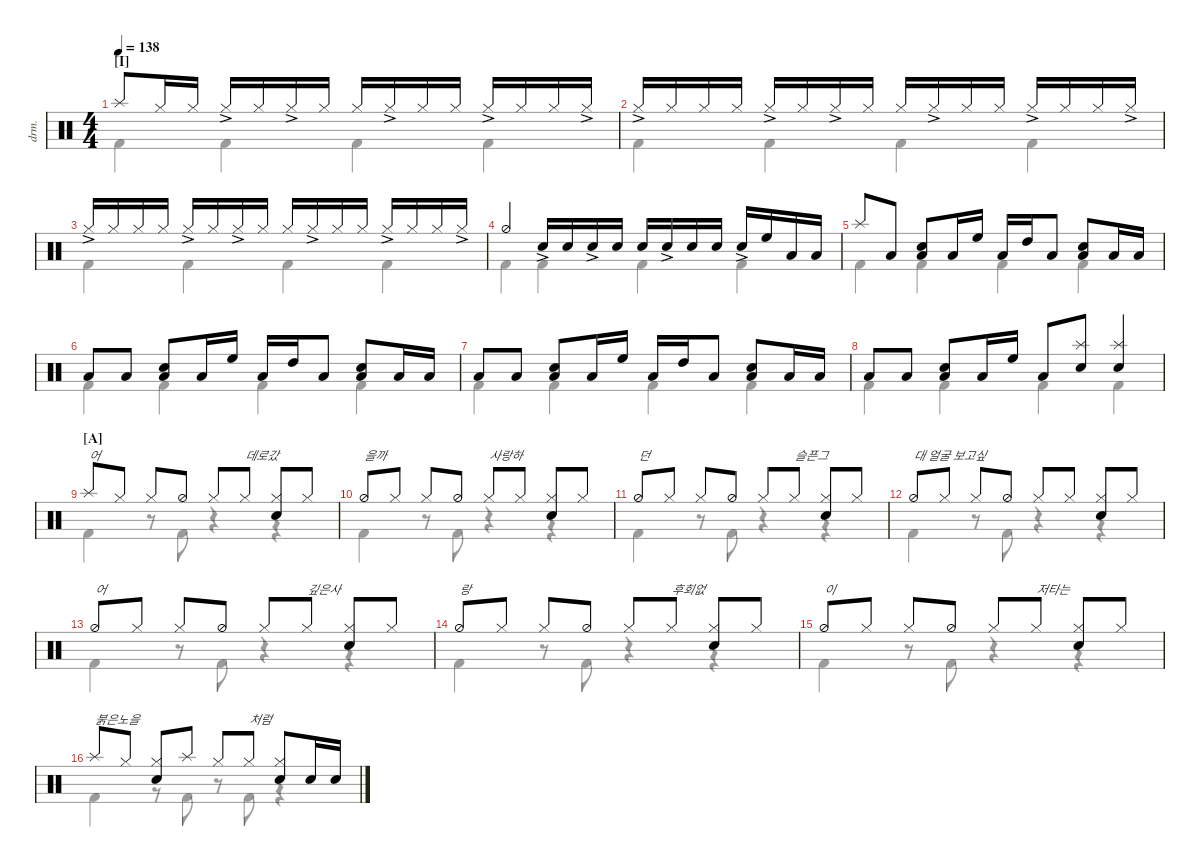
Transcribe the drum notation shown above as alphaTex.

\defaultSystemsLayout 4
\hideDynamics
\bracketExtendMode nobrackets
\track ("Drumkit" "drm.") {instrument percussion}
\staff {score}
\articulation defaults
\voice
\ts (4 4)
\section ("I" "")
\tempo 138
\clef neutral
\ks c "Splash (hit)".8{dy mf} "Hi-Hat (closed)".16 "Hi-Hat (closed)".16 "Hi-Hat (closed)"{ac}.16 "Hi-Hat (closed)".16 "Hi-Hat (closed)"{ac}.16 "Hi-Hat (closed)".16 "Hi-Hat (closed)".16 "Hi-Hat (closed)"{ac}.16 "Hi-Hat (closed)".16 "Hi-Hat (closed)".16 "Hi-Hat (closed)"{ac}.16 "Hi-Hat (closed)".16 "Hi-Hat (closed)".16 "Hi-Hat (closed)"{ac}.16
|
"Hi-Hat (closed)"{ac}.16 "Hi-Hat (closed)".16 "Hi-Hat (closed)".16 "Hi-Hat (closed)".16 "Hi-Hat (closed)"{ac}.16 "Hi-Hat (closed)".16 "Hi-Hat (closed)"{ac}.16 "Hi-Hat (closed)".16 "Hi-Hat (closed)".16 "Hi-Hat (closed)"{ac}.16 "Hi-Hat (closed)".16 "Hi-Hat (closed)".16 "Hi-Hat (closed)"{ac}.16 "Hi-Hat (closed)".16 "Hi-Hat (closed)".16 "Hi-Hat (closed)"{ac}.16 |
"Hi-Hat (closed)"{ac}.16 "Hi-Hat (closed)".16 "Hi-Hat (closed)".16 "Hi-Hat (closed)".16 "Hi-Hat (closed)"{ac}.16 "Hi-Hat (closed)".16 "Hi-Hat (closed)"{ac}.16 "Hi-Hat (closed)".16 "Hi-Hat (closed)".16 "Hi-Hat (closed)"{ac}.16 "Hi-Hat (closed)".16 "Hi-Hat (closed)".16 "Hi-Hat (closed)"{ac}.16 "Hi-Hat (closed)".16 "Hi-Hat (closed)".16 "Hi-Hat (closed)"{ac}.16 |
"Hi-Hat (half)".4 "Snare (hit) 2"{ac}.16 "Snare (hit) 2".16 "Snare (hit) 2"{ac}.16 "Snare (hit) 2".16 "Snare (hit) 2".16 "Snare (hit) 2"{ac}.16 "Snare (hit) 2".16 "Snare (hit) 2".16 "Snare (hit) 2"{ac}.16 "High Floor Tom (hit)".16 "Low Tom (hit)".16 "Low Tom (hit)".16 |
"Splash (hit)".8 "Low Tom (hit)".8 ("Low Tom (hit)" "Snare (hit) 2").8 "Low Tom (hit)".16 "High Floor Tom (hit)".16 "Low Tom (hit)".16 "High Tom (hit)".16 "Low Tom (hit)".8 ("Low Tom (hit)" "Snare (hit) 2").8 "Low Tom (hit)".16 "Low Tom (hit)".16 |
"Low Tom (hit)".8 "Low Tom (hit)".8 ("Low Tom (hit)" "Snare (hit) 2").8 "Low Tom (hit)".16 "High Floor Tom (hit)".16 "Low Tom (hit)".16 "High Tom (hit)".16 "Low Tom (hit)".8 ("Low Tom (hit)" "Snare (hit) 2").8 "Low Tom (hit)".16 "Low Tom (hit)".16 |
"Low Tom (hit)".8 "Low Tom (hit)".8 ("Low Tom (hit)" "Snare (hit) 2").8 "Low Tom (hit)".16 "High Floor Tom (hit)".16 "Low Tom (hit)".16 "High Tom (hit)".16 "Low Tom (hit)".8 ("Low Tom (hit)" "Snare (hit) 2").8 "Low Tom (hit)".16 "Low Tom (hit)".16 |
"Low Tom (hit)".8 "Low Tom (hit)".8 ("Low Tom (hit)" "Snare (hit) 2").8 "Low Tom (hit)".16 "High Floor Tom (hit)".16 "Low Tom (hit)".8 ("Snare (hit) 2" "Splash (hit)").8 ("Snare (hit) 2" "Splash (hit)").4 |
\section ("A" "")
"Splash (hit)".8{txt "어"} "Hi-Hat (closed)".8 "Hi-Hat (closed)".8 "Hi-Hat (half)".8 "Hi-Hat (closed)".8 "Hi-Hat (closed)".8{txt "데로갔"} ("Hi-Hat (closed)" "Snare (hit) 2").8 "Hi-Hat (closed)".8 |
"Hi-Hat (half)".8{txt "을까"} "Hi-Hat (closed)".8 "Hi-Hat (closed)".8 "Hi-Hat (half)".8 "Hi-Hat (closed)".8{txt "사랑하"} "Hi-Hat (closed)".8 ("Hi-Hat (closed)" "Snare (hit) 2").8 "Hi-Hat (closed)".8 |
"Hi-Hat (half)".8{txt "던"} "Hi-Hat (closed)".8 "Hi-Hat (closed)".8 "Hi-Hat (half)".8 "Hi-Hat (closed)".8 "Hi-Hat (closed)".8{txt "슬픈그"} ("Hi-Hat (closed)" "Snare (hit) 2").8 "Hi-Hat (closed)".8 |
"Hi-Hat (half)".8{txt "대 얼굴 보고싶"} "Hi-Hat (closed)".8 "Hi-Hat (closed)".8 "Hi-Hat (half)".8 "Hi-Hat (closed)".8 "Hi-Hat (closed)".8 ("Hi-Hat (closed)" "Snare (hit) 2").8 "Hi-Hat (closed)".8 |
"Hi-Hat (half)".8{txt "어"} "Hi-Hat (closed)".8 "Hi-Hat (closed)".8 "Hi-Hat (half)".8 "Hi-Hat (closed)".8 "Hi-Hat (closed)".8{txt "깊은사"} ("Hi-Hat (closed)" "Snare (hit) 2").8 "Hi-Hat (closed)".8 |
"Hi-Hat (half)".8{txt "랑"} "Hi-Hat (closed)".8 "Hi-Hat (closed)".8 "Hi-Hat (half)".8 "Hi-Hat (closed)".8 "Hi-Hat (closed)".8{txt "후회없"} ("Hi-Hat (closed)" "Snare (hit) 2").8 "Hi-Hat (closed)".8 |
"Hi-Hat (half)".8{txt "이"} "Hi-Hat (closed)".8 "Hi-Hat (closed)".8 "Hi-Hat (half)".8 "Hi-Hat (closed)".8 "Hi-Hat (closed)".8{txt "저타는"} ("Hi-Hat (closed)" "Snare (hit) 2").8 "Hi-Hat (closed)".8 |
"Splash (hit)".8{txt "붉은노을"} "Hi-Hat (closed)".8 ("Hi-Hat (closed)" "Snare (hit) 2").8 "Splash (hit)".8 "Hi-Hat (closed)".8 "Hi-Hat (closed)".8{txt "처럼"} ("Hi-Hat (closed)" "Snare (hit) 2").8 "Snare (hit) 2".16 "Snare (hit) 2".16
\voice
\clef neutral
\ottava regular
\simile none
\ks c
|
|
|
|
|
|
|
|
|
|
|
|
|
|
|
\voice
\clef neutral
\ottava regular
\simile none
\ks c "Kick (hit) 2".4{dy mf} "Kick (hit) 2".4 "Kick (hit) 2".4 "Kick (hit) 2".4
|
"Kick (hit) 2".4 "Kick (hit) 2".4 "Kick (hit) 2".4 "Kick (hit) 2".4 |
"Kick (hit) 2".4 "Kick (hit) 2".4 "Kick (hit) 2".4 "Kick (hit) 2".4 |
"Kick (hit) 2".4 "Kick (hit) 2".4 "Kick (hit) 2".4 "Kick (hit) 2".4 |
"Kick (hit) 2".4 "Kick (hit) 2".4 "Kick (hit) 2".4 "Kick (hit) 2".4 |
"Kick (hit) 2".4 "Kick (hit) 2".4 "Kick (hit) 2".4 "Kick (hit) 2".4 |
"Kick (hit) 2".4 "Kick (hit) 2".4 "Kick (hit) 2".4 "Kick (hit) 2".4 |
"Kick (hit) 2".4 "Kick (hit) 2".4 "Kick (hit) 2".4 "Kick (hit) 2".4 |
"Kick (hit) 2".4 r.8 "Kick (hit) 2".8 r.4 r.4 |
"Kick (hit) 2".4 r.8 "Kick (hit) 2".8 r.4 r.4 |
"Kick (hit) 2".4 r.8 "Kick (hit) 2".8 r.4 r.4 |
"Kick (hit) 2".4 r.8 "Kick (hit) 2".8 r.4 r.4 |
"Kick (hit) 2".4 r.8 "Kick (hit) 2".8 r.4 r.4 |
"Kick (hit) 2".4 r.8 "Kick (hit) 2".8 r.4 r.4 |
"Kick (hit) 2".4 r.8 "Kick (hit) 2".8 r.4 r.4 |
"Kick (hit) 2".4 r.8 "Kick (hit) 2".8 r.8 "Kick (hit) 2".8 r.4
